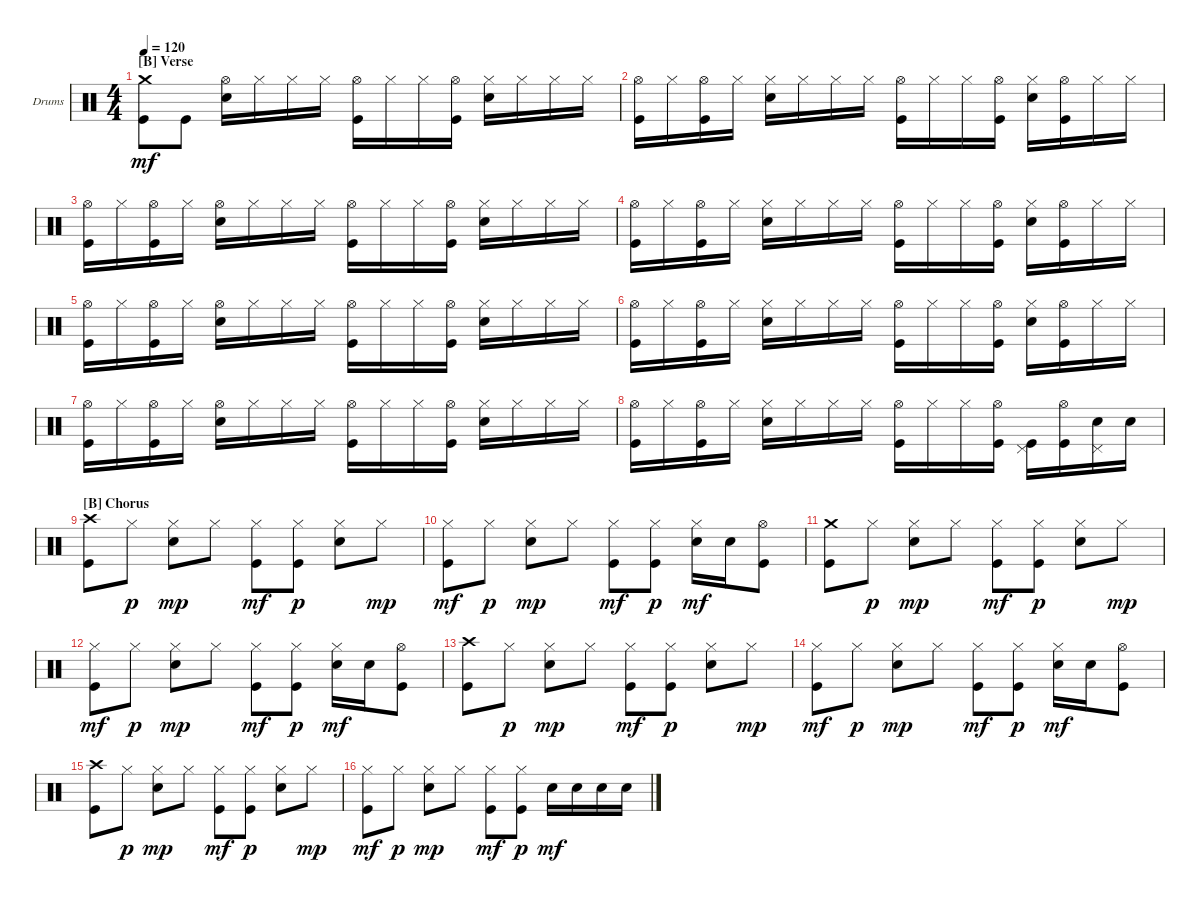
\defaultSystemsLayout 4
\bracketExtendMode groupsimilarinstruments
\firstSystemTrackNameOrientation horizontal
\otherSystemsTrackNameOrientation horizontal
\track ("Drumkit" "Drums") {instrument percussion}
\staff {score}
\articulation defaults
\ts (4 4)
\section ("B" "Verse")
\tempo 120
\clef neutral
\scale
0.333333
\ks c
("Crash medium (hit)" "Kick (hit)").8{dy mf} "Kick (hit)".8 ("Hi-Hat (open)" "Snare (hit) 2").16 "Hi-Hat (closed)".16 "Hi-Hat (closed)".16 "Hi-Hat (closed)".16 ("Hi-Hat (open)" "Kick (hit)").16 "Hi-Hat (closed)".16 "Hi-Hat (closed)".16 ("Hi-Hat (open)" "Kick (hit)").16 ("Hi-Hat (closed)" "Snare (hit) 2").16 "Hi-Hat (closed)".16 "Hi-Hat (closed)".16 "Hi-Hat (closed)".16 |
\scale
0.333333 ("Hi-Hat (open)" "Kick (hit)").16 "Hi-Hat (closed)".16 ("Hi-Hat (open)" "Kick (hit)").16 "Hi-Hat (closed)".16 ("Hi-Hat (closed)" "Snare (hit) 2").16 "Hi-Hat (closed)".16 "Hi-Hat (closed)".16 "Hi-Hat (closed)".16 ("Hi-Hat (open)" "Kick (hit)").16 "Hi-Hat (closed)".16 "Hi-Hat (closed)".16 ("Hi-Hat (open)" "Kick (hit)").16 ("Hi-Hat (closed)" "Snare (hit) 2").16 ("Hi-Hat (open)" "Kick (hit)").16 "Hi-Hat (closed)".16 "Hi-Hat (closed)".16 |
\scale
0.333333 ("Hi-Hat (open)" "Kick (hit)").16 "Hi-Hat (closed)".16 ("Hi-Hat (open)" "Kick (hit)").16 "Hi-Hat (closed)".16 ("Hi-Hat (open)" "Snare (hit) 2").16 "Hi-Hat (closed)".16 "Hi-Hat (closed)".16 "Hi-Hat (closed)".16 ("Hi-Hat (open)" "Kick (hit)").16 "Hi-Hat (closed)".16 "Hi-Hat (closed)".16 ("Hi-Hat (open)" "Kick (hit)").16 ("Hi-Hat (closed)" "Snare (hit) 2").16 "Hi-Hat (closed)".16 "Hi-Hat (closed)".16 "Hi-Hat (closed)".16 |
\scale
0.333333 ("Hi-Hat (open)" "Kick (hit)").16 "Hi-Hat (closed)".16 ("Hi-Hat (open)" "Kick (hit)").16 "Hi-Hat (closed)".16 ("Hi-Hat (closed)" "Snare (hit) 2").16 "Hi-Hat (closed)".16 "Hi-Hat (closed)".16 "Hi-Hat (closed)".16 ("Hi-Hat (open)" "Kick (hit)").16 "Hi-Hat (closed)".16 "Hi-Hat (closed)".16 ("Hi-Hat (open)" "Kick (hit)").16 ("Hi-Hat (closed)" "Snare (hit) 2").16 ("Hi-Hat (open)" "Kick (hit)").16 "Hi-Hat (closed)".16 "Hi-Hat (closed)".16 |
\scale
0.333333 ("Hi-Hat (open)" "Kick (hit)").16 "Hi-Hat (closed)".16 ("Hi-Hat (open)" "Kick (hit)").16 "Hi-Hat (closed)".16 ("Hi-Hat (open)" "Snare (hit) 2").16 "Hi-Hat (closed)".16 "Hi-Hat (closed)".16 "Hi-Hat (closed)".16 ("Hi-Hat (open)" "Kick (hit)").16 "Hi-Hat (closed)".16 "Hi-Hat (closed)".16 ("Hi-Hat (open)" "Kick (hit)").16 ("Hi-Hat (closed)" "Snare (hit) 2").16 "Hi-Hat (closed)".16 "Hi-Hat (closed)".16 "Hi-Hat (closed)".16 |
\scale
0.333333 ("Hi-Hat (open)" "Kick (hit)").16 "Hi-Hat (closed)".16 ("Hi-Hat (open)" "Kick (hit)").16 "Hi-Hat (closed)".16 ("Hi-Hat (closed)" "Snare (hit) 2").16 "Hi-Hat (closed)".16 "Hi-Hat (closed)".16 "Hi-Hat (closed)".16 ("Hi-Hat (open)" "Kick (hit)").16 "Hi-Hat (closed)".16 "Hi-Hat (closed)".16 ("Hi-Hat (open)" "Kick (hit)").16 ("Hi-Hat (closed)" "Snare (hit) 2").16 ("Hi-Hat (open)" "Kick (hit)").16 "Hi-Hat (closed)".16 "Hi-Hat (closed)".16 |
\scale
0.333333 ("Hi-Hat (open)" "Kick (hit)").16 "Hi-Hat (closed)".16 ("Hi-Hat (open)" "Kick (hit)").16 "Hi-Hat (closed)".16 ("Hi-Hat (open)" "Snare (hit) 2").16 "Hi-Hat (closed)".16 "Hi-Hat (closed)".16 "Hi-Hat (closed)".16 ("Hi-Hat (open)" "Kick (hit)").16 "Hi-Hat (closed)".16 "Hi-Hat (closed)".16 ("Hi-Hat (open)" "Kick (hit)").16 ("Hi-Hat (closed)" "Snare (hit) 2").16 "Hi-Hat (closed)".16 "Hi-Hat (closed)".16 "Hi-Hat (closed)".16 |
\scale
0.333333 ("Hi-Hat (open)" "Kick (hit)").16 "Hi-Hat (closed)".16 ("Hi-Hat (open)" "Kick (hit)").16 "Hi-Hat (closed)".16 ("Hi-Hat (closed)" "Snare (hit) 2").16 "Hi-Hat (closed)".16 "Hi-Hat (closed)".16 "Hi-Hat (closed)".16 ("Hi-Hat (open)" "Kick (hit)").16 "Hi-Hat (closed)".16 "Hi-Hat (closed)".16 ("Hi-Hat (open)" "Kick (hit)").16 ("Pedal Hi-Hat (hit)" "Kick (hit)").16 ("Hi-Hat (open)" "Kick (hit)").16 ("Pedal Hi-Hat (hit)" "Snare (hit) 2").16 "Snare (hit) 2".16 |
\section ("B" "Chorus")
\scale
0.333333 ("Crash high (hit)" "Kick (hit)").8 "Hi-Hat (closed)".8{dy p} ("Hi-Hat (closed)" "Snare (hit) 2").8{dy mp} "Hi-Hat (closed)".8 ("Hi-Hat (closed)" "Kick (hit)").8{dy mf} ("Hi-Hat (closed)" "Kick (hit)").8{dy p} ("Hi-Hat (closed)" "Snare (hit) 2").8 "Hi-Hat (closed)".8{dy mp} |
\scale
0.333333 ("Hi-Hat (closed)" "Kick (hit)").8{dy mf} "Hi-Hat (closed)".8{dy p} ("Hi-Hat (closed)" "Snare (hit) 2").8{dy mp} "Hi-Hat (closed)".8 ("Hi-Hat (closed)" "Kick (hit)").8{dy mf} ("Hi-Hat (closed)" "Kick (hit)").8{dy p} ("Hi-Hat (closed)" "Snare (hit) 2").16{dy mf} "Snare (hit) 2".16 ("Hi-Hat (open)" "Kick (hit)").8 |
\scale
0.333333 ("Crash medium (hit)" "Kick (hit)").8 "Hi-Hat (closed)".8{dy p} ("Hi-Hat (closed)" "Snare (hit) 2").8{dy mp} "Hi-Hat (closed)".8 ("Hi-Hat (closed)" "Kick (hit)").8{dy mf} ("Hi-Hat (closed)" "Kick (hit)").8{dy p} ("Hi-Hat (closed)" "Snare (hit) 2").8 "Hi-Hat (closed)".8{dy mp} |
\scale
0.333333 ("Hi-Hat (closed)" "Kick (hit)").8{dy mf} "Hi-Hat (closed)".8{dy p} ("Hi-Hat (closed)" "Snare (hit) 2").8{dy mp} "Hi-Hat (closed)".8 ("Hi-Hat (closed)" "Kick (hit)").8{dy mf} ("Hi-Hat (closed)" "Kick (hit)").8{dy p} ("Hi-Hat (closed)" "Snare (hit) 2").16{dy mf} "Snare (hit) 2".16 ("Hi-Hat (open)" "Kick (hit)").8 |
\scale
0.333333 ("Crash high (hit)" "Kick (hit)").8 "Hi-Hat (closed)".8{dy p} ("Hi-Hat (closed)" "Snare (hit) 2").8{dy mp} "Hi-Hat (closed)".8 ("Hi-Hat (closed)" "Kick (hit)").8{dy mf} ("Hi-Hat (closed)" "Kick (hit)").8{dy p} ("Hi-Hat (closed)" "Snare (hit) 2").8 "Hi-Hat (closed)".8{dy mp} |
\scale
0.333333 ("Hi-Hat (closed)" "Kick (hit)").8{dy mf} "Hi-Hat (closed)".8{dy p} ("Hi-Hat (closed)" "Snare (hit) 2").8{dy mp} "Hi-Hat (closed)".8 ("Hi-Hat (closed)" "Kick (hit)").8{dy mf} ("Hi-Hat (closed)" "Kick (hit)").8{dy p} ("Hi-Hat (closed)" "Snare (hit) 2").16{dy mf} "Snare (hit) 2".16 ("Hi-Hat (open)" "Kick (hit)").8 |
\scale
0.333333 ("Crash high (hit)" "Kick (hit)").8 "Hi-Hat (closed)".8{dy p} ("Hi-Hat (closed)" "Snare (hit) 2").8{dy mp} "Hi-Hat (closed)".8 ("Hi-Hat (closed)" "Kick (hit)").8{dy mf} ("Hi-Hat (closed)" "Kick (hit)").8{dy p} ("Hi-Hat (closed)" "Snare (hit) 2").8 "Hi-Hat (closed)".8{dy mp} |
\scale
0.333333 ("Hi-Hat (closed)" "Kick (hit)").8{dy mf} "Hi-Hat (closed)".8{dy p} ("Hi-Hat (closed)" "Snare (hit) 2").8{dy mp} "Hi-Hat (closed)".8 ("Hi-Hat (closed)" "Kick (hit)").8{dy mf} ("Hi-Hat (closed)" "Kick (hit)").8{dy p} "Snare (hit) 2".16{dy mf} "Snare (hit) 2".16 "Snare (hit) 2".16 "Snare (hit) 2".16
